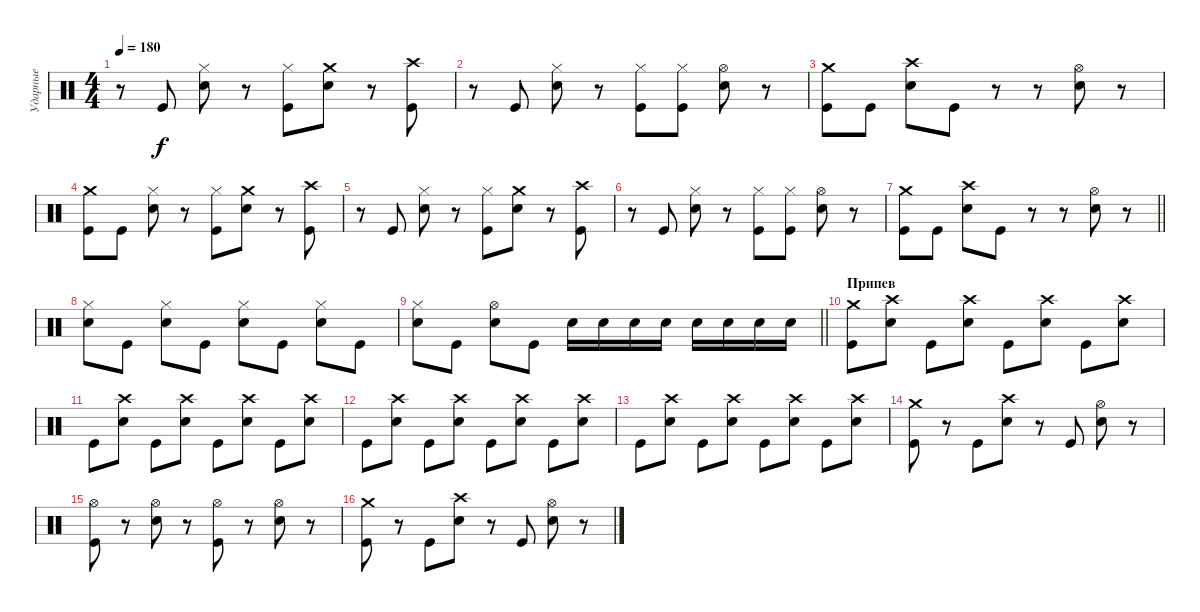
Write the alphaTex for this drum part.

\track ("Ударные" "Ударные") {instrument percussion}
\staff {score}
\articulation defaults
\ts (4 4)
\tempo 180
\clef neutral
\ks c
r.8{dy f} "Kick (hit)".8 ("Hi-Hat (closed)" "Electric Snare (hit)").8 r.8 ("Hi-Hat (closed)" "Kick (hit)").8 ("Crash medium (hit)" "Electric Snare (hit)").8 r.8 ("Crash high (hit)" "Kick (hit)").8 |
r.8 "Kick (hit)".8 ("Hi-Hat (closed)" "Electric Snare (hit)").8 r.8 ("Hi-Hat (closed)" "Kick (hit)").8 ("Hi-Hat (closed)" "Kick (hit)").8 ("Hi-Hat (open)" "Electric Snare (hit)").8 r.8 |
("Crash medium (hit)" "Kick (hit)").8 "Kick (hit)".8 ("Crash high (hit)" "Electric Snare (hit)").8 "Kick (hit)".8 r.8 r.8 ("Hi-Hat (open)" "Electric Snare (hit)").8 r.8 |
("Crash medium (hit)" "Kick (hit)").8 "Kick (hit)".8 ("Hi-Hat (closed)" "Electric Snare (hit)").8 r.8 ("Hi-Hat (closed)" "Kick (hit)").8 ("Crash medium (hit)" "Electric Snare (hit)").8 r.8 ("Crash high (hit)" "Kick (hit)").8 |
r.8 "Kick (hit)".8 ("Hi-Hat (closed)" "Electric Snare (hit)").8 r.8 ("Hi-Hat (closed)" "Kick (hit)").8 ("Crash medium (hit)" "Electric Snare (hit)").8 r.8 ("Crash high (hit)" "Kick (hit)").8 |
r.8 "Kick (hit)".8 ("Hi-Hat (closed)" "Electric Snare (hit)").8 r.8 ("Hi-Hat (closed)" "Kick (hit)").8 ("Hi-Hat (closed)" "Kick (hit)").8 ("Hi-Hat (open)" "Electric Snare (hit)").8 r.8 |
\barLineRight lightlight
("Crash medium (hit)" "Kick (hit)").8 "Kick (hit)".8 ("Crash high (hit)" "Electric Snare (hit)").8 "Kick (hit)".8 r.8 r.8 ("Hi-Hat (open)" "Electric Snare (hit)").8 r.8 |
\section ("" " ")
("Hi-Hat (closed)" "Electric Snare (hit)").8 "Kick (hit)".8 ("Hi-Hat (closed)" "Electric Snare (hit)").8 "Kick (hit)".8 ("Hi-Hat (closed)" "Electric Snare (hit)").8 "Kick (hit)".8 ("Hi-Hat (closed)" "Electric Snare (hit)").8 "Kick (hit)".8 |
\barLineRight lightlight
("Hi-Hat (closed)" "Electric Snare (hit)").8 "Kick (hit)".8 ("Hi-Hat (open)" "Electric Snare (hit)").8 "Kick (hit)".8 "Electric Snare (hit)".16 "Electric Snare (hit)".16 "Electric Snare (hit)".16 "Electric Snare (hit)".16 "Electric Snare (hit)".16 "Electric Snare (hit)".16 "Electric Snare (hit)".16 "Electric Snare (hit)".16 |
\section ("" "Припев")
("Crash medium (hit)" "Kick (hit)").8 ("Crash high (hit)" "Electric Snare (hit)").8 "Kick (hit)".8 ("Crash high (hit)" "Electric Snare (hit)").8 "Kick (hit)".8 ("Crash high (hit)" "Electric Snare (hit)").8 "Kick (hit)".8 ("Crash high (hit)" "Electric Snare (hit)").8 |
"Kick (hit)".8 ("Crash high (hit)" "Electric Snare (hit)").8 "Kick (hit)".8 ("Crash high (hit)" "Electric Snare (hit)").8 "Kick (hit)".8 ("Crash high (hit)" "Electric Snare (hit)").8 "Kick (hit)".8 ("Crash high (hit)" "Electric Snare (hit)").8 |
"Kick (hit)".8 ("Crash high (hit)" "Electric Snare (hit)").8 "Kick (hit)".8 ("Crash high (hit)" "Electric Snare (hit)").8 "Kick (hit)".8 ("Crash high (hit)" "Electric Snare (hit)").8 "Kick (hit)".8 ("Crash high (hit)" "Electric Snare (hit)").8 |
"Kick (hit)".8 ("Crash high (hit)" "Electric Snare (hit)").8 "Kick (hit)".8 ("Crash high (hit)" "Electric Snare (hit)").8 "Kick (hit)".8 ("Crash high (hit)" "Electric Snare (hit)").8 "Kick (hit)".8 ("Crash high (hit)" "Electric Snare (hit)").8 |
("Crash medium (hit)" "Kick (hit)").8 r.8 "Kick (hit)".8 ("Crash high (hit)" "Electric Snare (hit)").8 r.8 "Kick (hit)".8 ("Hi-Hat (open)" "Electric Snare (hit)").8 r.8 |
("Hi-Hat (open)" "Kick (hit)").8 r.8 ("Hi-Hat (open)" "Electric Snare (hit)").8 r.8 ("Hi-Hat (open)" "Kick (hit)").8 r.8 ("Hi-Hat (open)" "Electric Snare (hit)").8 r.8 |
("Crash medium (hit)" "Kick (hit)").8 r.8 "Kick (hit)".8 ("Crash high (hit)" "Electric Snare (hit)").8 r.8 "Kick (hit)".8 ("Hi-Hat (open)" "Electric Snare (hit)").8 r.8
